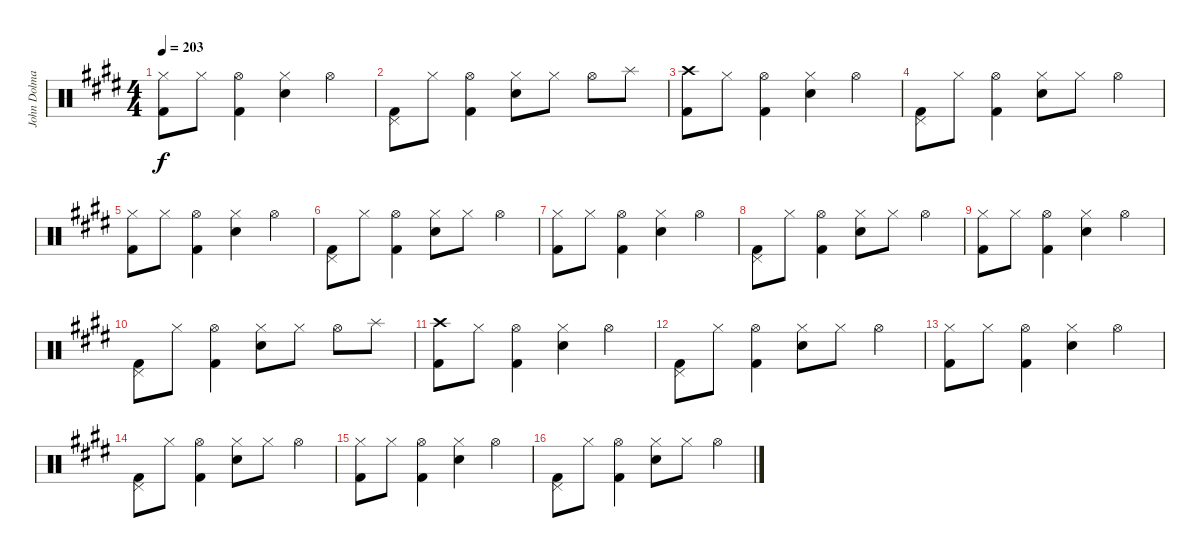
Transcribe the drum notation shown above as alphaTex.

\track ("John Dolmayan [Drums]" "John Dolma") {instrument percussion}
\staff {score}
\articulation defaults
\ts (4 4)
\tempo 203
\clef neutral
\ks c#minor
("Hi-Hat (closed)" "Kick (hit) 2").8{dy f} "Hi-Hat (closed)".8 ("Hi-Hat (open)" "Kick (hit) 2").4 ("Hi-Hat (closed)" "Electric Snare (hit)").4 "Hi-Hat (open)".4 |
("Pedal Hi-Hat (hit)" "Kick (hit) 2").8 "Hi-Hat (closed)".8 ("Hi-Hat (open)" "Kick (hit) 2").4 ("Hi-Hat (closed)" "Electric Snare (hit)").8 "Hi-Hat (closed)".8 "Hi-Hat (open)".8 "Splash (hit)".8 |
("Crash high (hit)" "Kick (hit) 2").8 "Hi-Hat (closed)".8 ("Hi-Hat (open)" "Kick (hit) 2").4 ("Hi-Hat (closed)" "Electric Snare (hit)").4 "Hi-Hat (open)".4 |
("Pedal Hi-Hat (hit)" "Kick (hit) 2").8 "Hi-Hat (closed)".8 ("Hi-Hat (open)" "Kick (hit) 2").4 ("Hi-Hat (closed)" "Electric Snare (hit)").8 "Hi-Hat (closed)".8 "Hi-Hat (open)".4 |
("Hi-Hat (closed)" "Kick (hit) 2").8 "Hi-Hat (closed)".8 ("Hi-Hat (open)" "Kick (hit) 2").4 ("Hi-Hat (closed)" "Electric Snare (hit)").4 "Hi-Hat (open)".4 |
("Pedal Hi-Hat (hit)" "Kick (hit) 2").8 "Hi-Hat (closed)".8 ("Hi-Hat (open)" "Kick (hit) 2").4 ("Hi-Hat (closed)" "Electric Snare (hit)").8 "Hi-Hat (closed)".8 "Hi-Hat (open)".4 |
("Hi-Hat (closed)" "Kick (hit) 2").8 "Hi-Hat (closed)".8 ("Hi-Hat (open)" "Kick (hit) 2").4 ("Hi-Hat (closed)" "Electric Snare (hit)").4 "Hi-Hat (open)".4 |
("Pedal Hi-Hat (hit)" "Kick (hit) 2").8 "Hi-Hat (closed)".8 ("Hi-Hat (open)" "Kick (hit) 2").4 ("Hi-Hat (closed)" "Electric Snare (hit)").8 "Hi-Hat (closed)".8 "Hi-Hat (open)".4 |
("Hi-Hat (closed)" "Kick (hit) 2").8 "Hi-Hat (closed)".8 ("Hi-Hat (open)" "Kick (hit) 2").4 ("Hi-Hat (closed)" "Electric Snare (hit)").4 "Hi-Hat (open)".4 |
("Pedal Hi-Hat (hit)" "Kick (hit) 2").8 "Hi-Hat (closed)".8 ("Hi-Hat (open)" "Kick (hit) 2").4 ("Hi-Hat (closed)" "Electric Snare (hit)").8 "Hi-Hat (closed)".8 "Hi-Hat (open)".8 "Splash (hit)".8 |
("Crash high (hit)" "Kick (hit) 2").8 "Hi-Hat (closed)".8 ("Hi-Hat (open)" "Kick (hit) 2").4 ("Hi-Hat (closed)" "Electric Snare (hit)").4 "Hi-Hat (open)".4 |
("Pedal Hi-Hat (hit)" "Kick (hit) 2").8 "Hi-Hat (closed)".8 ("Hi-Hat (open)" "Kick (hit) 2").4 ("Hi-Hat (closed)" "Electric Snare (hit)").8 "Hi-Hat (closed)".8 "Hi-Hat (open)".4 |
("Hi-Hat (closed)" "Kick (hit) 2").8 "Hi-Hat (closed)".8 ("Hi-Hat (open)" "Kick (hit) 2").4 ("Hi-Hat (closed)" "Electric Snare (hit)").4 "Hi-Hat (open)".4 |
("Pedal Hi-Hat (hit)" "Kick (hit) 2").8 "Hi-Hat (closed)".8 ("Hi-Hat (open)" "Kick (hit) 2").4 ("Hi-Hat (closed)" "Electric Snare (hit)").8 "Hi-Hat (closed)".8 "Hi-Hat (open)".4 |
("Hi-Hat (closed)" "Kick (hit) 2").8 "Hi-Hat (closed)".8 ("Hi-Hat (open)" "Kick (hit) 2").4 ("Hi-Hat (closed)" "Electric Snare (hit)").4 "Hi-Hat (open)".4 |
("Pedal Hi-Hat (hit)" "Kick (hit) 2").8 "Hi-Hat (closed)".8 ("Hi-Hat (open)" "Kick (hit) 2").4 ("Hi-Hat (closed)" "Electric Snare (hit)").8 "Hi-Hat (closed)".8 "Hi-Hat (open)".4
